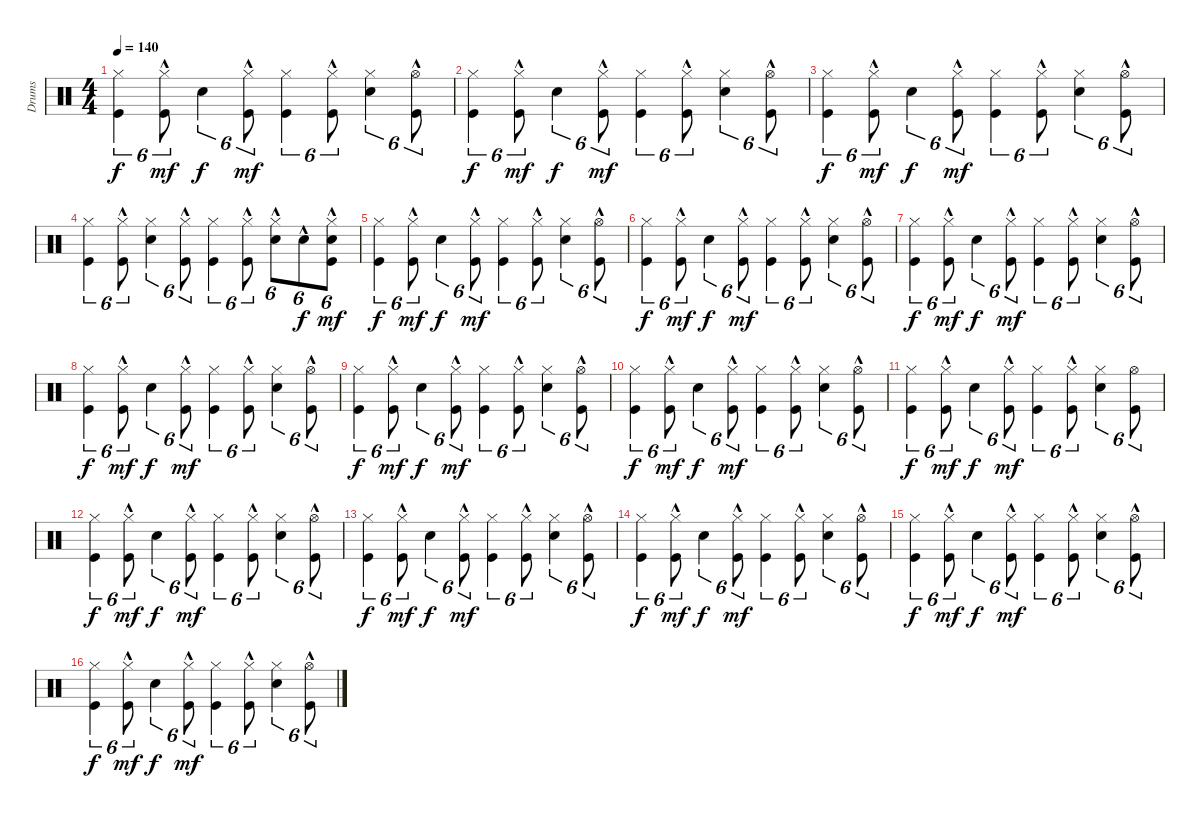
\track ("Drums" "Drums") {instrument percussion}
\staff {score}
\articulation defaults
\ts (4 4)
\tempo 140
\clef neutral
\ks c
("Kick (hit)" "Hi-Hat (closed)").4{tu (6 4) dy f} ("Kick (hit)"{hac} "Hi-Hat (closed)"{hac}).8{tu (6 4) dy mf} "Electric Snare (hit)".4{tu (6 4) dy f} ("Kick (hit)"{hac} "Hi-Hat (closed)"{hac}).8{tu (6 4) dy mf} ("Kick (hit)" "Hi-Hat (closed)").4{tu (6 4)} ("Kick (hit)"{hac} "Hi-Hat (closed)"{hac}).8{tu (6 4)} ("Electric Snare (hit)" "Hi-Hat (closed)").4{tu (6 4)} ("Kick (hit)"{hac} "Hi-Hat (open)"{hac}).8{tu (6 4)} |
("Kick (hit)" "Hi-Hat (closed)").4{tu (6 4) dy f} ("Kick (hit)"{hac} "Hi-Hat (closed)"{hac}).8{tu (6 4) dy mf} "Electric Snare (hit)".4{tu (6 4) dy f} ("Kick (hit)"{hac} "Hi-Hat (closed)"{hac}).8{tu (6 4) dy mf} ("Kick (hit)" "Hi-Hat (closed)").4{tu (6 4)} ("Kick (hit)"{hac} "Hi-Hat (closed)"{hac}).8{tu (6 4)} ("Electric Snare (hit)" "Hi-Hat (closed)").4{tu (6 4)} ("Kick (hit)"{hac} "Hi-Hat (open)"{hac}).8{tu (6 4)} |
("Kick (hit)" "Hi-Hat (closed)").4{tu (6 4) dy f} ("Kick (hit)"{hac} "Hi-Hat (closed)"{hac}).8{tu (6 4) dy mf} "Electric Snare (hit)".4{tu (6 4) dy f} ("Kick (hit)"{hac} "Hi-Hat (closed)"{hac}).8{tu (6 4) dy mf} ("Kick (hit)" "Hi-Hat (closed)").4{tu (6 4)} ("Kick (hit)"{hac} "Hi-Hat (closed)"{hac}).8{tu (6 4)} ("Electric Snare (hit)" "Hi-Hat (closed)").4{tu (6 4)} ("Kick (hit)"{hac} "Hi-Hat (open)"{hac}).8{tu (6 4)} |
("Kick (hit)" "Hi-Hat (closed)").4{tu (6 4)} ("Kick (hit)"{hac} "Hi-Hat (closed)"{hac}).8{tu (6 4)} ("Electric Snare (hit)" "Hi-Hat (closed)").4{tu (6 4)} ("Kick (hit)"{hac} "Hi-Hat (closed)"{hac}).8{tu (6 4)} ("Kick (hit)" "Hi-Hat (closed)").4{tu (6 4)} ("Kick (hit)"{hac} "Hi-Hat (closed)"{hac}).8{tu (6 4)} ("Electric Snare (hit)"{hac} "Hi-Hat (closed)"{hac}).8{tu (6 4)} "Electric Snare (hit)"{hac}.8{tu (6 4) dy f} ("Kick (hit)"{hac} "Snare (hit) 2"{hac} "Hi-Hat (closed)"{hac}).8{tu (6 4) dy mf} |
("Kick (hit)" "Hi-Hat (closed)").4{tu (6 4) dy f} ("Kick (hit)"{hac} "Hi-Hat (closed)"{hac}).8{tu (6 4) dy mf} "Electric Snare (hit)".4{tu (6 4) dy f} ("Kick (hit)"{hac} "Hi-Hat (closed)"{hac}).8{tu (6 4) dy mf} ("Kick (hit)" "Hi-Hat (closed)").4{tu (6 4)} ("Kick (hit)"{hac} "Hi-Hat (closed)"{hac}).8{tu (6 4)} ("Electric Snare (hit)" "Hi-Hat (closed)").4{tu (6 4)} ("Kick (hit)"{hac} "Hi-Hat (open)"{hac}).8{tu (6 4)} |
("Kick (hit)" "Hi-Hat (closed)").4{tu (6 4) dy f} ("Kick (hit)"{hac} "Hi-Hat (closed)"{hac}).8{tu (6 4) dy mf} "Electric Snare (hit)".4{tu (6 4) dy f} ("Kick (hit)"{hac} "Hi-Hat (closed)"{hac}).8{tu (6 4) dy mf} ("Kick (hit)" "Hi-Hat (closed)").4{tu (6 4)} ("Kick (hit)"{hac} "Hi-Hat (closed)"{hac}).8{tu (6 4)} ("Electric Snare (hit)" "Hi-Hat (closed)").4{tu (6 4)} ("Kick (hit)"{hac} "Hi-Hat (open)"{hac}).8{tu (6 4)} |
("Kick (hit)" "Hi-Hat (closed)").4{tu (6 4) dy f} ("Kick (hit)"{hac} "Hi-Hat (closed)"{hac}).8{tu (6 4) dy mf} "Electric Snare (hit)".4{tu (6 4) dy f} ("Kick (hit)"{hac} "Hi-Hat (closed)"{hac}).8{tu (6 4) dy mf} ("Kick (hit)" "Hi-Hat (closed)").4{tu (6 4)} ("Kick (hit)"{hac} "Hi-Hat (closed)"{hac}).8{tu (6 4)} ("Electric Snare (hit)" "Hi-Hat (closed)").4{tu (6 4)} ("Kick (hit)"{hac} "Hi-Hat (open)"{hac}).8{tu (6 4)} |
("Kick (hit)" "Hi-Hat (closed)").4{tu (6 4) dy f} ("Kick (hit)"{hac} "Hi-Hat (closed)"{hac}).8{tu (6 4) dy mf} "Electric Snare (hit)".4{tu (6 4) dy f} ("Kick (hit)"{hac} "Hi-Hat (closed)"{hac}).8{tu (6 4) dy mf} ("Kick (hit)" "Hi-Hat (closed)").4{tu (6 4)} ("Kick (hit)"{hac} "Hi-Hat (closed)"{hac}).8{tu (6 4)} ("Electric Snare (hit)" "Hi-Hat (closed)").4{tu (6 4)} ("Kick (hit)"{hac} "Hi-Hat (open)"{hac}).8{tu (6 4)} |
("Kick (hit)" "Hi-Hat (closed)").4{tu (6 4) dy f} ("Kick (hit)"{hac} "Hi-Hat (closed)"{hac}).8{tu (6 4) dy mf} "Electric Snare (hit)".4{tu (6 4) dy f} ("Kick (hit)"{hac} "Hi-Hat (closed)"{hac}).8{tu (6 4) dy mf} ("Kick (hit)" "Hi-Hat (closed)").4{tu (6 4)} ("Kick (hit)"{hac} "Hi-Hat (closed)"{hac}).8{tu (6 4)} ("Electric Snare (hit)" "Hi-Hat (closed)").4{tu (6 4)} ("Kick (hit)"{hac} "Hi-Hat (open)"{hac}).8{tu (6 4)} |
("Kick (hit)" "Hi-Hat (closed)").4{tu (6 4) dy f} ("Kick (hit)"{hac} "Hi-Hat (closed)"{hac}).8{tu (6 4) dy mf} "Electric Snare (hit)".4{tu (6 4) dy f} ("Kick (hit)"{hac} "Hi-Hat (closed)"{hac}).8{tu (6 4) dy mf} ("Kick (hit)" "Hi-Hat (closed)").4{tu (6 4)} ("Kick (hit)"{hac} "Hi-Hat (closed)"{hac}).8{tu (6 4)} ("Electric Snare (hit)" "Hi-Hat (closed)").4{tu (6 4)} ("Kick (hit)"{hac} "Hi-Hat (open)"{hac}).8{tu (6 4)} |
("Kick (hit)" "Hi-Hat (closed)").4{tu (6 4) dy f} ("Kick (hit)"{hac} "Hi-Hat (closed)"{hac}).8{tu (6 4) dy mf} "Electric Snare (hit)".4{tu (6 4) dy f} ("Kick (hit)"{hac} "Hi-Hat (closed)"{hac}).8{tu (6 4) dy mf} ("Kick (hit)" "Hi-Hat (closed)").4{tu (6 4)} ("Kick (hit)"{hac} "Hi-Hat (closed)"{hac}).8{tu (6 4)} ("Electric Snare (hit)" "Hi-Hat (closed)").4{tu (6 4)} ("Kick (hit)" "Hi-Hat (open)").8{tu (6 4)} |
("Kick (hit)" "Hi-Hat (closed)").4{tu (6 4) dy f} ("Kick (hit)"{hac} "Hi-Hat (closed)"{hac}).8{tu (6 4) dy mf} "Electric Snare (hit)".4{tu (6 4) dy f} ("Kick (hit)"{hac} "Hi-Hat (closed)"{hac}).8{tu (6 4) dy mf} ("Kick (hit)" "Hi-Hat (closed)").4{tu (6 4)} ("Kick (hit)"{hac} "Hi-Hat (closed)"{hac}).8{tu (6 4)} ("Electric Snare (hit)" "Hi-Hat (closed)").4{tu (6 4)} ("Kick (hit)"{hac} "Hi-Hat (open)"{hac}).8{tu (6 4)} |
("Kick (hit)" "Hi-Hat (closed)").4{tu (6 4) dy f} ("Kick (hit)"{hac} "Hi-Hat (closed)"{hac}).8{tu (6 4) dy mf} "Electric Snare (hit)".4{tu (6 4) dy f} ("Kick (hit)"{hac} "Hi-Hat (closed)"{hac}).8{tu (6 4) dy mf} ("Kick (hit)" "Hi-Hat (closed)").4{tu (6 4)} ("Kick (hit)"{hac} "Hi-Hat (closed)"{hac}).8{tu (6 4)} ("Electric Snare (hit)" "Hi-Hat (closed)").4{tu (6 4)} ("Kick (hit)"{hac} "Hi-Hat (open)"{hac}).8{tu (6 4)} |
("Kick (hit)" "Hi-Hat (closed)").4{tu (6 4) dy f} ("Kick (hit)"{hac} "Hi-Hat (closed)"{hac}).8{tu (6 4) dy mf} "Electric Snare (hit)".4{tu (6 4) dy f} ("Kick (hit)"{hac} "Hi-Hat (closed)"{hac}).8{tu (6 4) dy mf} ("Kick (hit)" "Hi-Hat (closed)").4{tu (6 4)} ("Kick (hit)"{hac} "Hi-Hat (closed)"{hac}).8{tu (6 4)} ("Electric Snare (hit)" "Hi-Hat (closed)").4{tu (6 4)} ("Kick (hit)"{hac} "Hi-Hat (open)"{hac}).8{tu (6 4)} |
("Kick (hit)" "Hi-Hat (closed)").4{tu (6 4) dy f} ("Kick (hit)"{hac} "Hi-Hat (closed)"{hac}).8{tu (6 4) dy mf} "Electric Snare (hit)".4{tu (6 4) dy f} ("Kick (hit)"{hac} "Hi-Hat (closed)"{hac}).8{tu (6 4) dy mf} ("Kick (hit)" "Hi-Hat (closed)").4{tu (6 4)} ("Kick (hit)"{hac} "Hi-Hat (closed)"{hac}).8{tu (6 4)} ("Electric Snare (hit)" "Hi-Hat (closed)").4{tu (6 4)} ("Kick (hit)"{hac} "Hi-Hat (open)"{hac}).8{tu (6 4)} |
("Kick (hit)" "Hi-Hat (closed)").4{tu (6 4) dy f} ("Kick (hit)"{hac} "Hi-Hat (closed)"{hac}).8{tu (6 4) dy mf} "Electric Snare (hit)".4{tu (6 4) dy f} ("Kick (hit)"{hac} "Hi-Hat (closed)"{hac}).8{tu (6 4) dy mf} ("Kick (hit)" "Hi-Hat (closed)").4{tu (6 4)} ("Kick (hit)"{hac} "Hi-Hat (closed)"{hac}).8{tu (6 4)} ("Electric Snare (hit)" "Hi-Hat (closed)").4{tu (6 4)} ("Kick (hit)"{hac} "Hi-Hat (open)"{hac}).8{tu (6 4)}
